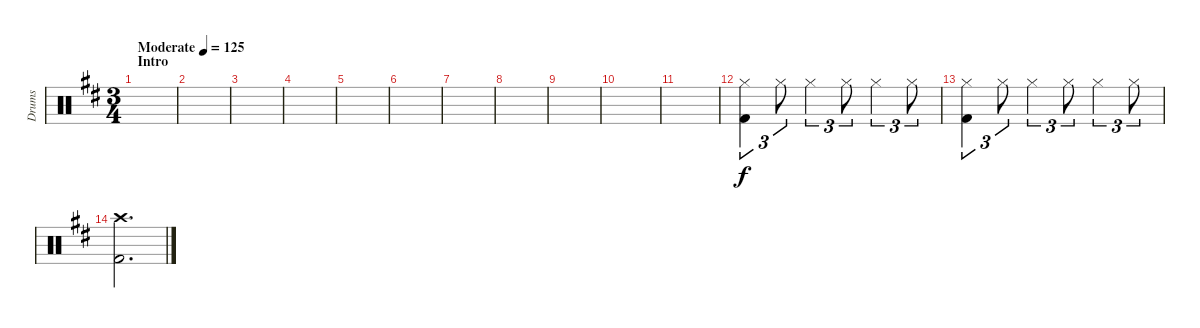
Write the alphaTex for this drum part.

\track ("Drums" "Drums") {instrument percussion}
\staff {score}
\articulation defaults
\ts (3 4)
\section ("" "Intro")
\tempo (125 "Moderate")
\clef neutral
\ks d
|
|
|
|
|
|
|
|
|
|
|
("Hi-Hat (closed)" "Kick (hit) 2").4{tu (3 2)} "Hi-Hat (closed)".8{tu (3 2)} "Hi-Hat (closed)".4{tu (3 2)} "Hi-Hat (closed)".8{tu (3 2)} "Hi-Hat (closed)".4{tu (3 2)} "Hi-Hat (closed)".8{tu (3 2)} |
("Hi-Hat (closed)" "Kick (hit) 2").4{tu (3 2)} "Hi-Hat (closed)".8{tu (3 2)} "Hi-Hat (closed)".4{tu (3 2)} "Hi-Hat (closed)".8{tu (3 2)} "Hi-Hat (closed)".4{tu (3 2)} "Hi-Hat (closed)".8{tu (3 2)} |
("Crash high (hit)" "Kick (hit) 2").2{d}
